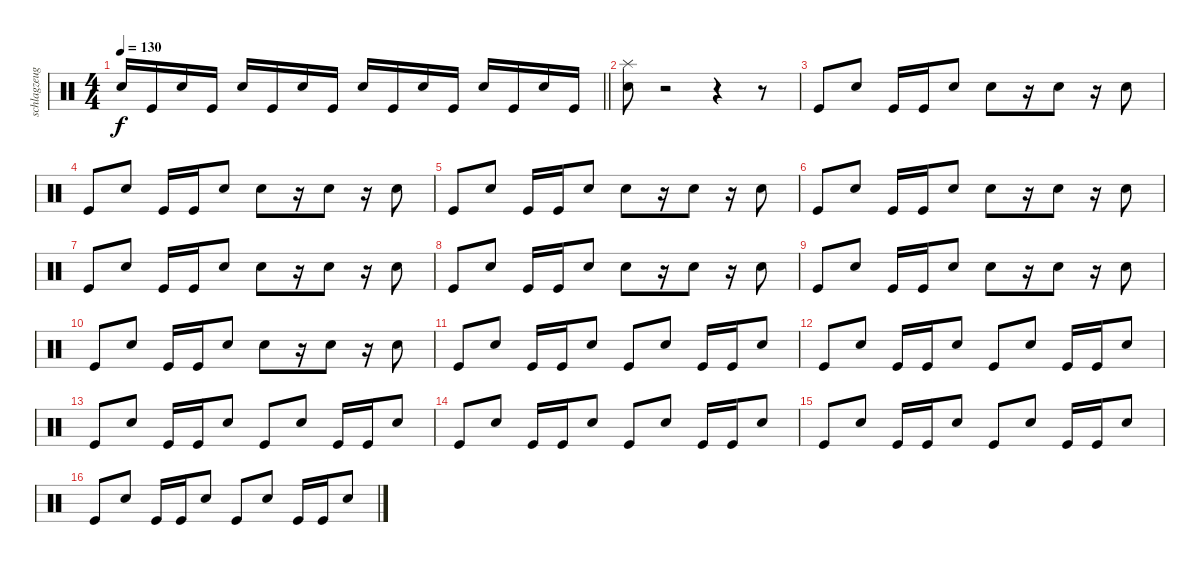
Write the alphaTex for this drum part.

\track ("schlagzeug" "schlagzeug") {instrument percussion}
\staff {score}
\articulation defaults
\ts (4 4)
\tempo 130
\clef neutral
\barLineRight lightlight
\ks c "Snare (hit) 2".16{dy f} "Kick (hit)".16 "Snare (hit) 2".16 "Kick (hit)".16 "Snare (hit) 2".16 "Kick (hit)".16 "Snare (hit) 2".16 "Kick (hit)".16 "Snare (hit) 2".16 "Kick (hit)".16 "Snare (hit) 2".16 "Kick (hit)".16 "Snare (hit) 2".16 "Kick (hit)".16 "Snare (hit) 2".16 "Kick (hit)".16
|
("Snare (hit) 2" "Splash (hit)").8 r.2 r.4 r.8 |
"Kick (hit)".8 "Snare (hit) 2".8 "Kick (hit)".16 "Kick (hit)".16 "Snare (hit) 2".8 "Snare (hit) 2".8 r.16 "Snare (hit) 2".8 r.16 "Snare (hit) 2".8 |
"Kick (hit)".8 "Snare (hit) 2".8 "Kick (hit)".16 "Kick (hit)".16 "Snare (hit) 2".8 "Snare (hit) 2".8 r.16 "Snare (hit) 2".8 r.16 "Snare (hit) 2".8 |
"Kick (hit)".8 "Snare (hit) 2".8 "Kick (hit)".16 "Kick (hit)".16 "Snare (hit) 2".8 "Snare (hit) 2".8 r.16 "Snare (hit) 2".8 r.16 "Snare (hit) 2".8 |
"Kick (hit)".8 "Snare (hit) 2".8 "Kick (hit)".16 "Kick (hit)".16 "Snare (hit) 2".8 "Snare (hit) 2".8 r.16 "Snare (hit) 2".8 r.16 "Snare (hit) 2".8 |
"Kick (hit)".8 "Snare (hit) 2".8 "Kick (hit)".16 "Kick (hit)".16 "Snare (hit) 2".8 "Snare (hit) 2".8 r.16 "Snare (hit) 2".8 r.16 "Snare (hit) 2".8 |
"Kick (hit)".8 "Snare (hit) 2".8 "Kick (hit)".16 "Kick (hit)".16 "Snare (hit) 2".8 "Snare (hit) 2".8 r.16 "Snare (hit) 2".8 r.16 "Snare (hit) 2".8 |
"Kick (hit)".8 "Snare (hit) 2".8 "Kick (hit)".16 "Kick (hit)".16 "Snare (hit) 2".8 "Snare (hit) 2".8 r.16 "Snare (hit) 2".8 r.16 "Snare (hit) 2".8 |
"Kick (hit)".8 "Snare (hit) 2".8 "Kick (hit)".16 "Kick (hit)".16 "Snare (hit) 2".8 "Snare (hit) 2".8 r.16 "Snare (hit) 2".8 r.16 "Snare (hit) 2".8 |
"Kick (hit)".8 "Snare (hit) 2".8 "Kick (hit)".16 "Kick (hit)".16 "Snare (hit) 2".8 "Kick (hit)".8 "Snare (hit) 2".8 "Kick (hit)".16 "Kick (hit)".16 "Snare (hit) 2".8 |
"Kick (hit)".8 "Snare (hit) 2".8 "Kick (hit)".16 "Kick (hit)".16 "Snare (hit) 2".8 "Kick (hit)".8 "Snare (hit) 2".8 "Kick (hit)".16 "Kick (hit)".16 "Snare (hit) 2".8 |
"Kick (hit)".8 "Snare (hit) 2".8 "Kick (hit)".16 "Kick (hit)".16 "Snare (hit) 2".8 "Kick (hit)".8 "Snare (hit) 2".8 "Kick (hit)".16 "Kick (hit)".16 "Snare (hit) 2".8 |
"Kick (hit)".8 "Snare (hit) 2".8 "Kick (hit)".16 "Kick (hit)".16 "Snare (hit) 2".8 "Kick (hit)".8 "Snare (hit) 2".8 "Kick (hit)".16 "Kick (hit)".16 "Snare (hit) 2".8 |
"Kick (hit)".8 "Snare (hit) 2".8 "Kick (hit)".16 "Kick (hit)".16 "Snare (hit) 2".8 "Kick (hit)".8 "Snare (hit) 2".8 "Kick (hit)".16 "Kick (hit)".16 "Snare (hit) 2".8 |
"Kick (hit)".8 "Snare (hit) 2".8 "Kick (hit)".16 "Kick (hit)".16 "Snare (hit) 2".8 "Kick (hit)".8 "Snare (hit) 2".8 "Kick (hit)".16 "Kick (hit)".16 "Snare (hit) 2".8
